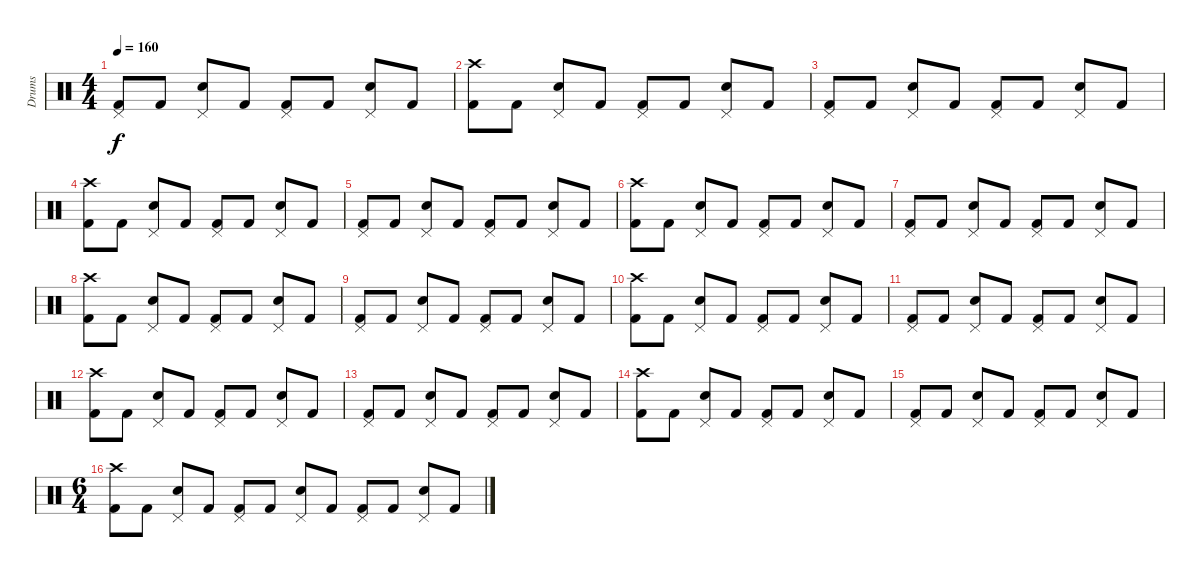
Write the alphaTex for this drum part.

\track ("Drums" "Drums") {instrument percussion}
\staff {score}
\articulation defaults
\ts (4 4)
\tempo 160
\clef neutral
\ks c
("Pedal Hi-Hat (hit)" "Kick (hit) 2").8{dy f} "Kick (hit) 2".8 ("Pedal Hi-Hat (hit)" "Electric Snare (hit)").8 "Kick (hit) 2".8 ("Pedal Hi-Hat (hit)" "Kick (hit) 2").8 "Kick (hit) 2".8 ("Pedal Hi-Hat (hit)" "Electric Snare (hit)").8 "Kick (hit) 2".8 |
("Crash high (hit)" "Kick (hit) 2").8 "Kick (hit) 2".8 ("Pedal Hi-Hat (hit)" "Electric Snare (hit)").8 "Kick (hit) 2".8 ("Pedal Hi-Hat (hit)" "Kick (hit) 2").8 "Kick (hit) 2".8 ("Pedal Hi-Hat (hit)" "Electric Snare (hit)").8 "Kick (hit) 2".8 |
("Pedal Hi-Hat (hit)" "Kick (hit) 2").8 "Kick (hit) 2".8 ("Pedal Hi-Hat (hit)" "Electric Snare (hit)").8 "Kick (hit) 2".8 ("Pedal Hi-Hat (hit)" "Kick (hit) 2").8 "Kick (hit) 2".8 ("Pedal Hi-Hat (hit)" "Electric Snare (hit)").8 "Kick (hit) 2".8 |
("Crash high (hit)" "Kick (hit) 2").8 "Kick (hit) 2".8 ("Pedal Hi-Hat (hit)" "Electric Snare (hit)").8 "Kick (hit) 2".8 ("Pedal Hi-Hat (hit)" "Kick (hit) 2").8 "Kick (hit) 2".8 ("Pedal Hi-Hat (hit)" "Electric Snare (hit)").8 "Kick (hit) 2".8 |
("Pedal Hi-Hat (hit)" "Kick (hit) 2").8 "Kick (hit) 2".8 ("Pedal Hi-Hat (hit)" "Electric Snare (hit)").8 "Kick (hit) 2".8 ("Pedal Hi-Hat (hit)" "Kick (hit) 2").8 "Kick (hit) 2".8 ("Pedal Hi-Hat (hit)" "Electric Snare (hit)").8 "Kick (hit) 2".8 |
("Crash high (hit)" "Kick (hit) 2").8 "Kick (hit) 2".8 ("Pedal Hi-Hat (hit)" "Electric Snare (hit)").8 "Kick (hit) 2".8 ("Pedal Hi-Hat (hit)" "Kick (hit) 2").8 "Kick (hit) 2".8 ("Pedal Hi-Hat (hit)" "Electric Snare (hit)").8 "Kick (hit) 2".8 |
("Pedal Hi-Hat (hit)" "Kick (hit) 2").8 "Kick (hit) 2".8 ("Pedal Hi-Hat (hit)" "Electric Snare (hit)").8 "Kick (hit) 2".8 ("Pedal Hi-Hat (hit)" "Kick (hit) 2").8 "Kick (hit) 2".8 ("Pedal Hi-Hat (hit)" "Electric Snare (hit)").8 "Kick (hit) 2".8 |
("Crash high (hit)" "Kick (hit) 2").8 "Kick (hit) 2".8 ("Pedal Hi-Hat (hit)" "Electric Snare (hit)").8 "Kick (hit) 2".8 ("Pedal Hi-Hat (hit)" "Kick (hit) 2").8 "Kick (hit) 2".8 ("Pedal Hi-Hat (hit)" "Electric Snare (hit)").8 "Kick (hit) 2".8 |
("Pedal Hi-Hat (hit)" "Kick (hit) 2").8 "Kick (hit) 2".8 ("Pedal Hi-Hat (hit)" "Electric Snare (hit)").8 "Kick (hit) 2".8 ("Pedal Hi-Hat (hit)" "Kick (hit) 2").8 "Kick (hit) 2".8 ("Pedal Hi-Hat (hit)" "Electric Snare (hit)").8 "Kick (hit) 2".8 |
("Crash high (hit)" "Kick (hit) 2").8 "Kick (hit) 2".8 ("Pedal Hi-Hat (hit)" "Electric Snare (hit)").8 "Kick (hit) 2".8 ("Pedal Hi-Hat (hit)" "Kick (hit) 2").8 "Kick (hit) 2".8 ("Pedal Hi-Hat (hit)" "Electric Snare (hit)").8 "Kick (hit) 2".8 |
("Pedal Hi-Hat (hit)" "Kick (hit) 2").8 "Kick (hit) 2".8 ("Pedal Hi-Hat (hit)" "Electric Snare (hit)").8 "Kick (hit) 2".8 ("Pedal Hi-Hat (hit)" "Kick (hit) 2").8 "Kick (hit) 2".8 ("Pedal Hi-Hat (hit)" "Electric Snare (hit)").8 "Kick (hit) 2".8 |
("Crash high (hit)" "Kick (hit) 2").8 "Kick (hit) 2".8 ("Pedal Hi-Hat (hit)" "Electric Snare (hit)").8 "Kick (hit) 2".8 ("Pedal Hi-Hat (hit)" "Kick (hit) 2").8 "Kick (hit) 2".8 ("Pedal Hi-Hat (hit)" "Electric Snare (hit)").8 "Kick (hit) 2".8 |
("Pedal Hi-Hat (hit)" "Kick (hit) 2").8 "Kick (hit) 2".8 ("Pedal Hi-Hat (hit)" "Electric Snare (hit)").8 "Kick (hit) 2".8 ("Pedal Hi-Hat (hit)" "Kick (hit) 2").8 "Kick (hit) 2".8 ("Pedal Hi-Hat (hit)" "Electric Snare (hit)").8 "Kick (hit) 2".8 |
("Crash high (hit)" "Kick (hit) 2").8 "Kick (hit) 2".8 ("Pedal Hi-Hat (hit)" "Electric Snare (hit)").8 "Kick (hit) 2".8 ("Pedal Hi-Hat (hit)" "Kick (hit) 2").8 "Kick (hit) 2".8 ("Pedal Hi-Hat (hit)" "Electric Snare (hit)").8 "Kick (hit) 2".8 |
("Pedal Hi-Hat (hit)" "Kick (hit) 2").8 "Kick (hit) 2".8 ("Pedal Hi-Hat (hit)" "Electric Snare (hit)").8 "Kick (hit) 2".8 ("Pedal Hi-Hat (hit)" "Kick (hit) 2").8 "Kick (hit) 2".8 ("Pedal Hi-Hat (hit)" "Electric Snare (hit)").8 "Kick (hit) 2".8 |
\ts (6 4)
("Crash high (hit)" "Kick (hit) 2").8 "Kick (hit) 2".8 ("Pedal Hi-Hat (hit)" "Snare (hit) 2").8 "Kick (hit) 2".8 ("Pedal Hi-Hat (hit)" "Kick (hit) 2").8 "Kick (hit) 2".8 ("Pedal Hi-Hat (hit)" "Snare (hit) 2").8 "Kick (hit) 2".8 ("Pedal Hi-Hat (hit)" "Kick (hit) 2").8 "Kick (hit) 2".8 ("Pedal Hi-Hat (hit)" "Snare (hit) 2").8 "Kick (hit) 2".8
